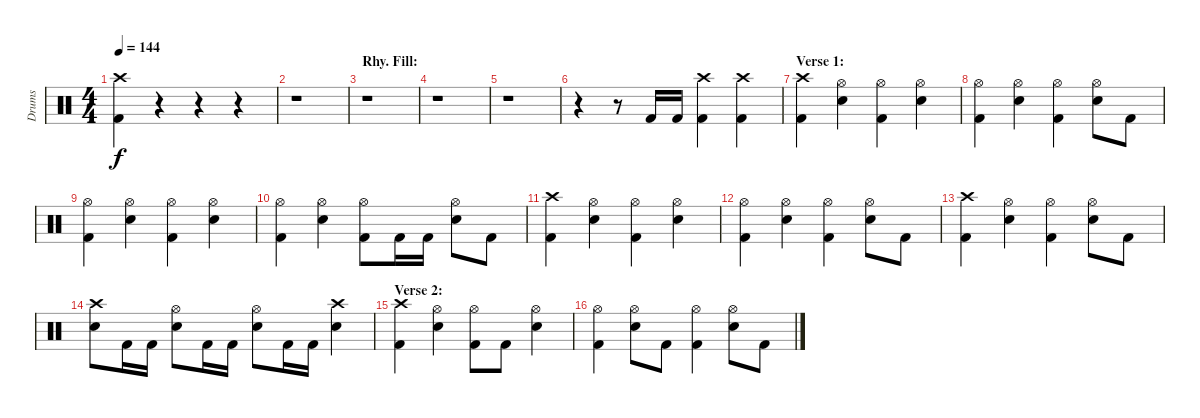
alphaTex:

\track ("Drums" "Drums") {instrument percussion}
\staff {score}
\articulation defaults
\ts (4 4)
\tempo 144
\clef neutral
\ks c
("Crash high (hit)" "Kick (hit) 2").4{dy f} r.4 r.4 r.4 |
r.1 |
\section ("" "Rhy. Fill:")
r.1 |
r.1 |
r.1 |
r.4 r.8 "Kick (hit) 2".16 "Kick (hit) 2".16 ("Crash high (hit)" "Kick (hit) 2").4 ("Crash high (hit)" "Kick (hit) 2").4 |
\section ("" "Verse 1:")
("Crash high (hit)" "Kick (hit) 2").4 ("Hi-Hat (open)" "Snare (hit) 2").4 ("Hi-Hat (open)" "Kick (hit) 2").4 ("Hi-Hat (open)" "Snare (hit) 2").4 |
("Hi-Hat (open)" "Kick (hit) 2").4 ("Hi-Hat (open)" "Snare (hit) 2").4 ("Hi-Hat (open)" "Kick (hit) 2").4 ("Hi-Hat (open)" "Snare (hit) 2").8 "Kick (hit) 2".8 |
("Hi-Hat (open)" "Kick (hit) 2").4 ("Hi-Hat (open)" "Snare (hit) 2").4 ("Hi-Hat (open)" "Kick (hit) 2").4 ("Hi-Hat (open)" "Snare (hit) 2").4 |
("Hi-Hat (open)" "Kick (hit) 2").4 ("Hi-Hat (open)" "Snare (hit) 2").4 ("Hi-Hat (open)" "Kick (hit) 2").8 "Kick (hit) 2".16 "Kick (hit) 2".16 ("Hi-Hat (open)" "Snare (hit) 2").8 "Kick (hit) 2".8 |
("Crash high (hit)" "Kick (hit) 2").4 ("Hi-Hat (open)" "Snare (hit) 2").4 ("Hi-Hat (open)" "Kick (hit) 2").4 ("Hi-Hat (open)" "Snare (hit) 2").4 |
("Hi-Hat (open)" "Kick (hit) 2").4 ("Hi-Hat (open)" "Snare (hit) 2").4 ("Hi-Hat (open)" "Kick (hit) 2").4 ("Hi-Hat (open)" "Snare (hit) 2").8 "Kick (hit) 2".8 |
("Crash high (hit)" "Kick (hit) 2").4 ("Hi-Hat (open)" "Snare (hit) 2").4 ("Hi-Hat (open)" "Kick (hit) 2").4 ("Hi-Hat (open)" "Snare (hit) 2").8 "Kick (hit) 2".8 |
("Crash high (hit)" "Snare (hit) 2").8 "Kick (hit) 2".16 "Kick (hit) 2".16 ("Hi-Hat (open)" "Snare (hit) 2").8 "Kick (hit) 2".16 "Kick (hit) 2".16 ("Hi-Hat (open)" "Snare (hit) 2").8 "Kick (hit) 2".16 "Kick (hit) 2".16 ("Crash high (hit)" "Snare (hit) 2").4 |
\section ("" "Verse 2:")
("Crash high (hit)" "Kick (hit) 2").4 ("Hi-Hat (open)" "Snare (hit) 2").4 ("Hi-Hat (open)" "Kick (hit) 2").8 "Kick (hit) 2".8 ("Hi-Hat (open)" "Snare (hit) 2").4 |
("Hi-Hat (open)" "Kick (hit) 2").4 ("Hi-Hat (open)" "Snare (hit) 2").8 "Kick (hit) 2".8 ("Hi-Hat (open)" "Kick (hit) 2").4 ("Hi-Hat (open)" "Snare (hit) 2").8 "Kick (hit) 2".8
